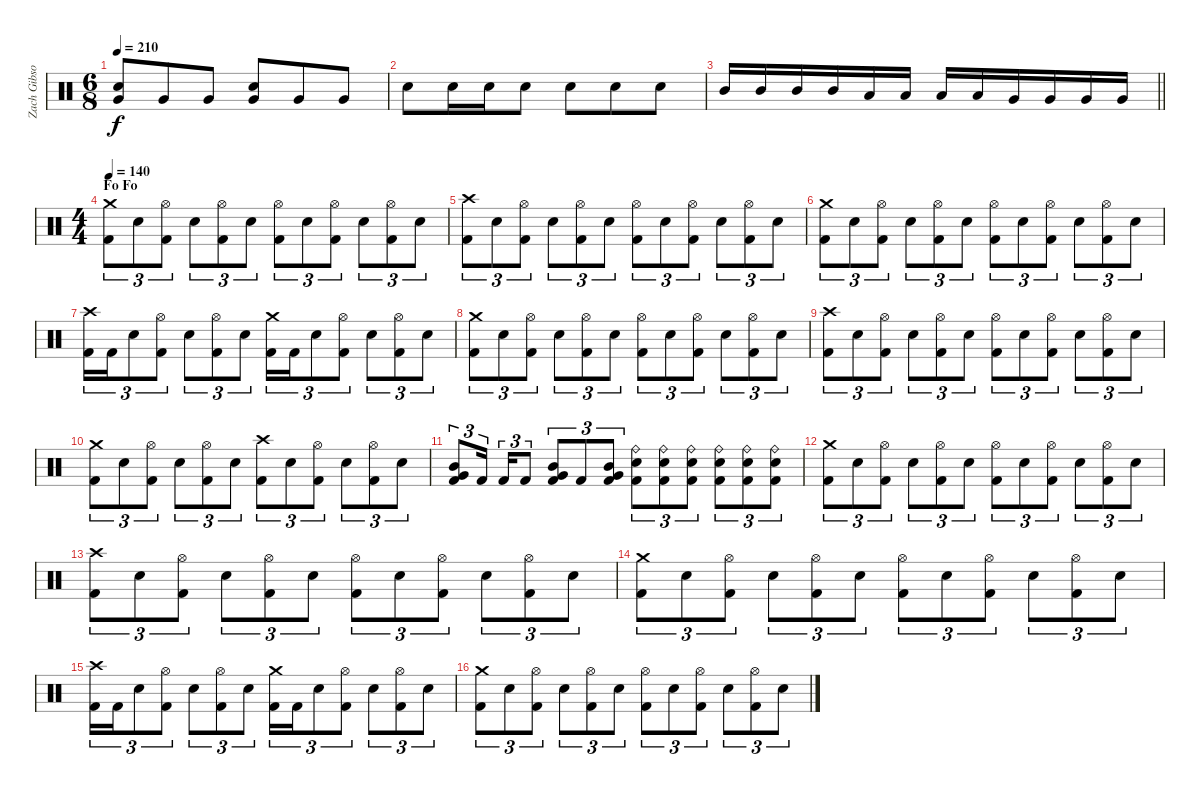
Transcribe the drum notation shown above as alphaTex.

\track ("Zach Gibson" "Zach Gibso") {instrument percussion}
\staff {score}
\articulation defaults
\ts (6 8)
\tempo 210
\clef neutral
\ks c
("Snare (hit) 2" "Very Low Tom (hit)").8{dy f} "Very Low Tom (hit)".8 "Very Low Tom (hit)".8 ("Snare (hit) 2" "Very Low Tom (hit)").8 "Very Low Tom (hit)".8 "Very Low Tom (hit)".8 |
"Snare (hit) 2".8 "Snare (hit) 2".16 "Snare (hit) 2".16 "Snare (hit) 2".8 "Snare (hit) 2".8 "Snare (hit) 2".8 "Snare (hit) 2".8 |
\barLineRight lightlight "Mid Tom (hit)".16 "Mid Tom (hit)".16 "Mid Tom (hit)".16 "Mid Tom (hit)".16 "Low Tom (hit)".16 "Low Tom (hit)".16 "Low Tom (hit)".16 "Low Tom (hit)".16 "Very Low Tom (hit)".16 "Very Low Tom (hit)".16 "Very Low Tom (hit)".16 "Very Low Tom (hit)".16
|
\ts (4 4)
\section ("" "Fo Fo")
\tempo 140
("Crash medium (hit)" "Kick (hit) 2").8{tu (3 2)} "Snare (hit) 2".8{tu (3 2)} ("Hi-Hat (open)" "Kick (hit) 2").8{tu (3 2)} "Snare (hit) 2".8{tu (3 2)} ("Hi-Hat (open)" "Kick (hit) 2").8{tu (3 2)} "Snare (hit) 2".8{tu (3 2)} ("Hi-Hat (open)" "Kick (hit) 2").8{tu (3 2)} "Snare (hit) 2".8{tu (3 2)} ("Hi-Hat (open)" "Kick (hit) 2").8{tu (3 2)} "Snare (hit) 2".8{tu (3 2)} ("Hi-Hat (open)" "Kick (hit) 2").8{tu (3 2)} "Snare (hit) 2".8{tu (3 2)} |
("Crash high (hit)" "Kick (hit) 2").8{tu (3 2)} "Snare (hit) 2".8{tu (3 2)} ("Hi-Hat (open)" "Kick (hit) 2").8{tu (3 2)} "Snare (hit) 2".8{tu (3 2)} ("Hi-Hat (open)" "Kick (hit) 2").8{tu (3 2)} "Snare (hit) 2".8{tu (3 2)} ("Hi-Hat (open)" "Kick (hit) 2").8{tu (3 2)} "Snare (hit) 2".8{tu (3 2)} ("Hi-Hat (open)" "Kick (hit) 2").8{tu (3 2)} "Snare (hit) 2".8{tu (3 2)} ("Hi-Hat (open)" "Kick (hit) 2").8{tu (3 2)} "Snare (hit) 2".8{tu (3 2)} |
("Crash medium (hit)" "Kick (hit) 2").8{tu (3 2)} "Snare (hit) 2".8{tu (3 2)} ("Hi-Hat (open)" "Kick (hit) 2").8{tu (3 2)} "Snare (hit) 2".8{tu (3 2)} ("Hi-Hat (open)" "Kick (hit) 2").8{tu (3 2)} "Snare (hit) 2".8{tu (3 2)} ("Hi-Hat (open)" "Kick (hit) 2").8{tu (3 2)} "Snare (hit) 2".8{tu (3 2)} ("Hi-Hat (open)" "Kick (hit) 2").8{tu (3 2)} "Snare (hit) 2".8{tu (3 2)} ("Hi-Hat (open)" "Kick (hit) 2").8{tu (3 2)} "Snare (hit) 2".8{tu (3 2)} |
("Crash high (hit)" "Kick (hit) 2").16{tu (3 2)} "Kick (hit) 2".16{tu (3 2)} "Snare (hit) 2".8{tu (3 2)} ("Hi-Hat (open)" "Kick (hit) 2").8{tu (3 2)} "Snare (hit) 2".8{tu (3 2)} ("Hi-Hat (open)" "Kick (hit) 2").8{tu (3 2)} "Snare (hit) 2".8{tu (3 2)} ("Crash medium (hit)" "Kick (hit) 2").16{tu (3 2)} "Kick (hit) 2".16{tu (3 2)} "Snare (hit) 2".8{tu (3 2)} ("Hi-Hat (open)" "Kick (hit) 2").8{tu (3 2)} "Snare (hit) 2".8{tu (3 2)} ("Hi-Hat (open)" "Kick (hit) 2").8{tu (3 2)} "Snare (hit) 2".8{tu (3 2)} |
("Crash medium (hit)" "Kick (hit) 2").8{tu (3 2)} "Snare (hit) 2".8{tu (3 2)} ("Hi-Hat (open)" "Kick (hit) 2").8{tu (3 2)} "Snare (hit) 2".8{tu (3 2)} ("Hi-Hat (open)" "Kick (hit) 2").8{tu (3 2)} "Snare (hit) 2".8{tu (3 2)} ("Hi-Hat (open)" "Kick (hit) 2").8{tu (3 2)} "Snare (hit) 2".8{tu (3 2)} ("Hi-Hat (open)" "Kick (hit) 2").8{tu (3 2)} "Snare (hit) 2".8{tu (3 2)} ("Hi-Hat (open)" "Kick (hit) 2").8{tu (3 2)} "Snare (hit) 2".8{tu (3 2)} |
("Crash high (hit)" "Kick (hit) 2").8{tu (3 2)} "Snare (hit) 2".8{tu (3 2)} ("Hi-Hat (open)" "Kick (hit) 2").8{tu (3 2)} "Snare (hit) 2".8{tu (3 2)} ("Hi-Hat (open)" "Kick (hit) 2").8{tu (3 2)} "Snare (hit) 2".8{tu (3 2)} ("Hi-Hat (open)" "Kick (hit) 2").8{tu (3 2)} "Snare (hit) 2".8{tu (3 2)} ("Hi-Hat (open)" "Kick (hit) 2").8{tu (3 2)} "Snare (hit) 2".8{tu (3 2)} ("Hi-Hat (open)" "Kick (hit) 2").8{tu (3 2)} "Snare (hit) 2".8{tu (3 2)} |
("Crash medium (hit)" "Kick (hit) 2").8{tu (3 2)} "Snare (hit) 2".8{tu (3 2)} ("Hi-Hat (open)" "Kick (hit) 2").8{tu (3 2)} "Snare (hit) 2".8{tu (3 2)} ("Hi-Hat (open)" "Kick (hit) 2").8{tu (3 2)} "Snare (hit) 2".8{tu (3 2)} ("Crash high (hit)" "Kick (hit) 2").8{tu (3 2)} "Snare (hit) 2".8{tu (3 2)} ("Hi-Hat (open)" "Kick (hit) 2").8{tu (3 2)} "Snare (hit) 2".8{tu (3 2)} ("Hi-Hat (open)" "Kick (hit) 2").8{tu (3 2)} "Snare (hit) 2".8{tu (3 2)} |
("Mid Tom (hit)" "Very Low Tom (hit)" "Kick (hit) 2").8{tu (3 2)} "Kick (hit) 2".16{tu (3 2) beam splitsecondary} "Kick (hit) 2".16{tu (3 2)} "Kick (hit) 2".8{tu (3 2)} ("Very Low Tom (hit)" "Mid Tom (hit)" "Kick (hit) 2").8{tu (3 2)} "Kick (hit) 2".8{tu (3 2)} ("Very Low Tom (hit)" "Mid Tom (hit)" "Kick (hit) 2").8{tu (3 2)} ("Ride (bell)" "Snare (hit) 2" "Kick (hit) 2").8{tu (3 2)} ("Ride (bell)" "Snare (hit) 2" "Kick (hit) 2").8{tu (3 2)} ("Ride (bell)" "Snare (hit) 2" "Kick (hit) 2").8{tu (3 2)} ("Ride (bell)" "Snare (hit) 2" "Kick (hit) 2").8{tu (3 2)} ("Ride (bell)" "Snare (hit) 2" "Kick (hit) 2").8{tu (3 2)} ("Ride (bell)" "Snare (hit) 2" "Kick (hit) 2").8{tu (3 2)} |
("Crash medium (hit)" "Kick (hit) 2").8{tu (3 2)} "Snare (hit) 2".8{tu (3 2)} ("Hi-Hat (open)" "Kick (hit) 2").8{tu (3 2)} "Snare (hit) 2".8{tu (3 2)} ("Hi-Hat (open)" "Kick (hit) 2").8{tu (3 2)} "Snare (hit) 2".8{tu (3 2)} ("Hi-Hat (open)" "Kick (hit) 2").8{tu (3 2)} "Snare (hit) 2".8{tu (3 2)} ("Hi-Hat (open)" "Kick (hit) 2").8{tu (3 2)} "Snare (hit) 2".8{tu (3 2)} ("Hi-Hat (open)" "Kick (hit) 2").8{tu (3 2)} "Snare (hit) 2".8{tu (3 2)} |
("Crash high (hit)" "Kick (hit) 2").8{tu (3 2)} "Snare (hit) 2".8{tu (3 2)} ("Hi-Hat (open)" "Kick (hit) 2").8{tu (3 2)} "Snare (hit) 2".8{tu (3 2)} ("Hi-Hat (open)" "Kick (hit) 2").8{tu (3 2)} "Snare (hit) 2".8{tu (3 2)} ("Hi-Hat (open)" "Kick (hit) 2").8{tu (3 2)} "Snare (hit) 2".8{tu (3 2)} ("Hi-Hat (open)" "Kick (hit) 2").8{tu (3 2)} "Snare (hit) 2".8{tu (3 2)} ("Hi-Hat (open)" "Kick (hit) 2").8{tu (3 2)} "Snare (hit) 2".8{tu (3 2)} |
("Crash medium (hit)" "Kick (hit) 2").8{tu (3 2)} "Snare (hit) 2".8{tu (3 2)} ("Hi-Hat (open)" "Kick (hit) 2").8{tu (3 2)} "Snare (hit) 2".8{tu (3 2)} ("Hi-Hat (open)" "Kick (hit) 2").8{tu (3 2)} "Snare (hit) 2".8{tu (3 2)} ("Hi-Hat (open)" "Kick (hit) 2").8{tu (3 2)} "Snare (hit) 2".8{tu (3 2)} ("Hi-Hat (open)" "Kick (hit) 2").8{tu (3 2)} "Snare (hit) 2".8{tu (3 2)} ("Hi-Hat (open)" "Kick (hit) 2").8{tu (3 2)} "Snare (hit) 2".8{tu (3 2)} |
("Crash high (hit)" "Kick (hit) 2").16{tu (3 2)} "Kick (hit) 2".16{tu (3 2)} "Snare (hit) 2".8{tu (3 2)} ("Hi-Hat (open)" "Kick (hit) 2").8{tu (3 2)} "Snare (hit) 2".8{tu (3 2)} ("Hi-Hat (open)" "Kick (hit) 2").8{tu (3 2)} "Snare (hit) 2".8{tu (3 2)} ("Crash medium (hit)" "Kick (hit) 2").16{tu (3 2)} "Kick (hit) 2".16{tu (3 2)} "Snare (hit) 2".8{tu (3 2)} ("Hi-Hat (open)" "Kick (hit) 2").8{tu (3 2)} "Snare (hit) 2".8{tu (3 2)} ("Hi-Hat (open)" "Kick (hit) 2").8{tu (3 2)} "Snare (hit) 2".8{tu (3 2)} |
("Crash medium (hit)" "Kick (hit) 2").8{tu (3 2)} "Snare (hit) 2".8{tu (3 2)} ("Hi-Hat (open)" "Kick (hit) 2").8{tu (3 2)} "Snare (hit) 2".8{tu (3 2)} ("Hi-Hat (open)" "Kick (hit) 2").8{tu (3 2)} "Snare (hit) 2".8{tu (3 2)} ("Hi-Hat (open)" "Kick (hit) 2").8{tu (3 2)} "Snare (hit) 2".8{tu (3 2)} ("Hi-Hat (open)" "Kick (hit) 2").8{tu (3 2)} "Snare (hit) 2".8{tu (3 2)} ("Hi-Hat (open)" "Kick (hit) 2").8{tu (3 2)} "Snare (hit) 2".8{tu (3 2)}
